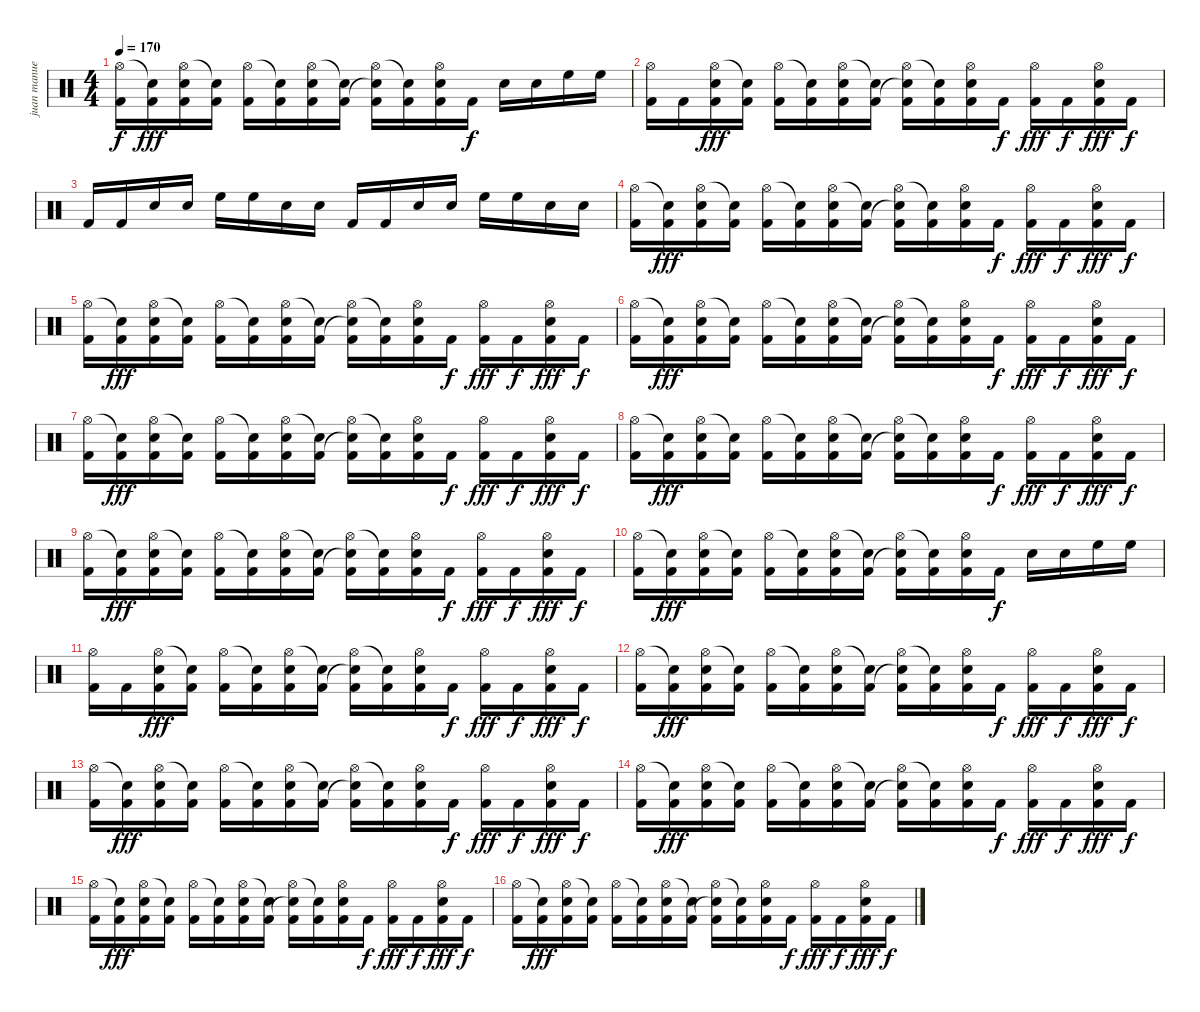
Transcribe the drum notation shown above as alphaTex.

\track ("juan manuel" "juan manue") {instrument percussion}
\staff {score}
\articulation defaults
\ts (4 4)
\tempo 170
\clef neutral
\ks c
("Hi-Hat (open)" "Kick (hit) 2").16{dy f} ("Snare (hit)"{t} "Kick (hit) 2").16{dy fff} ("Hi-Hat (open)" "Snare (hit) 2" "Kick (hit) 2").16 ("Snare (hit)"{t} "Kick (hit) 2").16 ("Hi-Hat (open)" "Kick (hit) 2").16 ("Snare (hit)"{t} "Kick (hit) 2").16 ("Hi-Hat (open)" "Snare (hit) 2" "Kick (hit) 2").16 ("Snare (hit)"{t} "Kick (hit) 2").16 ("Hi-Hat (open)" "Snare (hit)"{t} "Kick (hit) 2").16 ("Snare (hit)"{t} "Kick (hit) 2").16 ("Hi-Hat (open)" "Snare (hit) 2" "Kick (hit) 2").16 "Kick (hit) 2".16{dy f} "Electric Snare (hit)".16 "Electric Snare (hit)".16 "High Floor Tom (hit)".16 "High Floor Tom (hit)".16 |
("Hi-Hat (open)" "Kick (hit) 2").16 "Kick (hit) 2".16 ("Hi-Hat (open)" "Snare (hit) 2" "Kick (hit) 2").16{dy fff} ("Snare (hit)"{t} "Kick (hit) 2").16 ("Hi-Hat (open)" "Kick (hit) 2").16 ("Snare (hit)"{t} "Kick (hit) 2").16 ("Hi-Hat (open)" "Snare (hit) 2" "Kick (hit) 2").16 ("Snare (hit)"{t} "Kick (hit) 2").16 ("Hi-Hat (open)" "Snare (hit)"{t} "Kick (hit) 2").16 ("Snare (hit)"{t} "Kick (hit) 2").16 ("Hi-Hat (open)" "Snare (hit) 2" "Kick (hit) 2").16 "Kick (hit) 2".16{dy f} ("Hi-Hat (open)" "Kick (hit) 2").16{dy fff} "Kick (hit) 2".16{dy f} ("Hi-Hat (open)" "Snare (hit) 2" "Kick (hit) 2").16{dy fff} "Kick (hit) 2".16{dy f} |
"Kick (hit) 2".16 "Kick (hit) 2".16 "Electric Snare (hit)".16 "Electric Snare (hit)".16 "High Floor Tom (hit)".16 "High Floor Tom (hit)".16 "Electric Snare (hit)".16 "Electric Snare (hit)".16 "Kick (hit) 2".16 "Kick (hit) 2".16 "Electric Snare (hit)".16 "Electric Snare (hit)".16 "High Floor Tom (hit)".16 "High Floor Tom (hit)".16 "Electric Snare (hit)".16 "Electric Snare (hit)".16 |
("Hi-Hat (open)" "Kick (hit) 2").16 ("Snare (hit)"{t} "Kick (hit) 2").16{dy fff} ("Hi-Hat (open)" "Snare (hit) 2" "Kick (hit) 2").16 ("Snare (hit)"{t} "Kick (hit) 2").16 ("Hi-Hat (open)" "Kick (hit) 2").16 ("Snare (hit)"{t} "Kick (hit) 2").16 ("Hi-Hat (open)" "Snare (hit) 2" "Kick (hit) 2").16 ("Snare (hit)"{t} "Kick (hit) 2").16 ("Hi-Hat (open)" "Snare (hit)"{t} "Kick (hit) 2").16 ("Snare (hit)"{t} "Kick (hit) 2").16 ("Hi-Hat (open)" "Snare (hit) 2" "Kick (hit) 2").16 "Kick (hit) 2".16{dy f} ("Hi-Hat (open)" "Kick (hit) 2").16{dy fff} "Kick (hit) 2".16{dy f} ("Hi-Hat (open)" "Snare (hit) 2" "Kick (hit) 2").16{dy fff} "Kick (hit) 2".16{dy f} |
("Hi-Hat (open)" "Kick (hit) 2").16 ("Snare (hit)"{t} "Kick (hit) 2").16{dy fff} ("Hi-Hat (open)" "Snare (hit) 2" "Kick (hit) 2").16 ("Snare (hit)"{t} "Kick (hit) 2").16 ("Hi-Hat (open)" "Kick (hit) 2").16 ("Snare (hit)"{t} "Kick (hit) 2").16 ("Hi-Hat (open)" "Snare (hit) 2" "Kick (hit) 2").16 ("Snare (hit)"{t} "Kick (hit) 2").16 ("Hi-Hat (open)" "Snare (hit)"{t} "Kick (hit) 2").16 ("Snare (hit)"{t} "Kick (hit) 2").16 ("Hi-Hat (open)" "Snare (hit) 2" "Kick (hit) 2").16 "Kick (hit) 2".16{dy f} ("Hi-Hat (open)" "Kick (hit) 2").16{dy fff} "Kick (hit) 2".16{dy f} ("Hi-Hat (open)" "Snare (hit) 2" "Kick (hit) 2").16{dy fff} "Kick (hit) 2".16{dy f} |
("Hi-Hat (open)" "Kick (hit) 2").16 ("Snare (hit)"{t} "Kick (hit) 2").16{dy fff} ("Hi-Hat (open)" "Snare (hit) 2" "Kick (hit) 2").16 ("Snare (hit)"{t} "Kick (hit) 2").16 ("Hi-Hat (open)" "Kick (hit) 2").16 ("Snare (hit)"{t} "Kick (hit) 2").16 ("Hi-Hat (open)" "Snare (hit) 2" "Kick (hit) 2").16 ("Snare (hit)"{t} "Kick (hit) 2").16 ("Hi-Hat (open)" "Snare (hit)"{t} "Kick (hit) 2").16 ("Snare (hit)"{t} "Kick (hit) 2").16 ("Hi-Hat (open)" "Snare (hit) 2" "Kick (hit) 2").16 "Kick (hit) 2".16{dy f} ("Hi-Hat (open)" "Kick (hit) 2").16{dy fff} "Kick (hit) 2".16{dy f} ("Hi-Hat (open)" "Snare (hit) 2" "Kick (hit) 2").16{dy fff} "Kick (hit) 2".16{dy f} |
("Hi-Hat (open)" "Kick (hit) 2").16 ("Snare (hit)"{t} "Kick (hit) 2").16{dy fff} ("Hi-Hat (open)" "Snare (hit) 2" "Kick (hit) 2").16 ("Snare (hit)"{t} "Kick (hit) 2").16 ("Hi-Hat (open)" "Kick (hit) 2").16 ("Snare (hit)"{t} "Kick (hit) 2").16 ("Hi-Hat (open)" "Snare (hit) 2" "Kick (hit) 2").16 ("Snare (hit)"{t} "Kick (hit) 2").16 ("Hi-Hat (open)" "Snare (hit)"{t} "Kick (hit) 2").16 ("Snare (hit)"{t} "Kick (hit) 2").16 ("Hi-Hat (open)" "Snare (hit) 2" "Kick (hit) 2").16 "Kick (hit) 2".16{dy f} ("Hi-Hat (open)" "Kick (hit) 2").16{dy fff} "Kick (hit) 2".16{dy f} ("Hi-Hat (open)" "Snare (hit) 2" "Kick (hit) 2").16{dy fff} "Kick (hit) 2".16{dy f} |
("Hi-Hat (open)" "Kick (hit) 2").16 ("Snare (hit)"{t} "Kick (hit) 2").16{dy fff} ("Hi-Hat (open)" "Snare (hit) 2" "Kick (hit) 2").16 ("Snare (hit)"{t} "Kick (hit) 2").16 ("Hi-Hat (open)" "Kick (hit) 2").16 ("Snare (hit)"{t} "Kick (hit) 2").16 ("Hi-Hat (open)" "Snare (hit) 2" "Kick (hit) 2").16 ("Snare (hit)"{t} "Kick (hit) 2").16 ("Hi-Hat (open)" "Snare (hit)"{t} "Kick (hit) 2").16 ("Snare (hit)"{t} "Kick (hit) 2").16 ("Hi-Hat (open)" "Snare (hit) 2" "Kick (hit) 2").16 "Kick (hit) 2".16{dy f} ("Hi-Hat (open)" "Kick (hit) 2").16{dy fff} "Kick (hit) 2".16{dy f} ("Hi-Hat (open)" "Snare (hit) 2" "Kick (hit) 2").16{dy fff} "Kick (hit) 2".16{dy f} |
("Hi-Hat (open)" "Kick (hit) 2").16 ("Snare (hit)"{t} "Kick (hit) 2").16{dy fff} ("Hi-Hat (open)" "Snare (hit) 2" "Kick (hit) 2").16 ("Snare (hit)"{t} "Kick (hit) 2").16 ("Hi-Hat (open)" "Kick (hit) 2").16 ("Snare (hit)"{t} "Kick (hit) 2").16 ("Hi-Hat (open)" "Snare (hit) 2" "Kick (hit) 2").16 ("Snare (hit)"{t} "Kick (hit) 2").16 ("Hi-Hat (open)" "Snare (hit)"{t} "Kick (hit) 2").16 ("Snare (hit)"{t} "Kick (hit) 2").16 ("Hi-Hat (open)" "Snare (hit) 2" "Kick (hit) 2").16 "Kick (hit) 2".16{dy f} ("Hi-Hat (open)" "Kick (hit) 2").16{dy fff} "Kick (hit) 2".16{dy f} ("Hi-Hat (open)" "Snare (hit) 2" "Kick (hit) 2").16{dy fff} "Kick (hit) 2".16{dy f} |
("Hi-Hat (open)" "Kick (hit) 2").16 ("Snare (hit)"{t} "Kick (hit) 2").16{dy fff} ("Hi-Hat (open)" "Snare (hit) 2" "Kick (hit) 2").16 ("Snare (hit)"{t} "Kick (hit) 2").16 ("Hi-Hat (open)" "Kick (hit) 2").16 ("Snare (hit)"{t} "Kick (hit) 2").16 ("Hi-Hat (open)" "Snare (hit) 2" "Kick (hit) 2").16 ("Snare (hit)"{t} "Kick (hit) 2").16 ("Hi-Hat (open)" "Snare (hit)"{t} "Kick (hit) 2").16 ("Snare (hit)"{t} "Kick (hit) 2").16 ("Hi-Hat (open)" "Snare (hit) 2" "Kick (hit) 2").16 "Kick (hit) 2".16{dy f} "Electric Snare (hit)".16 "Electric Snare (hit)".16 "High Floor Tom (hit)".16 "High Floor Tom (hit)".16 |
("Hi-Hat (open)" "Kick (hit) 2").16 "Kick (hit) 2".16 ("Hi-Hat (open)" "Snare (hit) 2" "Kick (hit) 2").16{dy fff} ("Snare (hit)"{t} "Kick (hit) 2").16 ("Hi-Hat (open)" "Kick (hit) 2").16 ("Snare (hit)"{t} "Kick (hit) 2").16 ("Hi-Hat (open)" "Snare (hit) 2" "Kick (hit) 2").16 ("Snare (hit)"{t} "Kick (hit) 2").16 ("Hi-Hat (open)" "Snare (hit)"{t} "Kick (hit) 2").16 ("Snare (hit)"{t} "Kick (hit) 2").16 ("Hi-Hat (open)" "Snare (hit) 2" "Kick (hit) 2").16 "Kick (hit) 2".16{dy f} ("Hi-Hat (open)" "Kick (hit) 2").16{dy fff} "Kick (hit) 2".16{dy f} ("Hi-Hat (open)" "Snare (hit) 2" "Kick (hit) 2").16{dy fff} "Kick (hit) 2".16{dy f} |
("Hi-Hat (open)" "Kick (hit) 2").16 ("Snare (hit)"{t} "Kick (hit) 2").16{dy fff} ("Hi-Hat (open)" "Snare (hit) 2" "Kick (hit) 2").16 ("Snare (hit)"{t} "Kick (hit) 2").16 ("Hi-Hat (open)" "Kick (hit) 2").16 ("Snare (hit)"{t} "Kick (hit) 2").16 ("Hi-Hat (open)" "Snare (hit) 2" "Kick (hit) 2").16 ("Snare (hit)"{t} "Kick (hit) 2").16 ("Hi-Hat (open)" "Snare (hit)"{t} "Kick (hit) 2").16 ("Snare (hit)"{t} "Kick (hit) 2").16 ("Hi-Hat (open)" "Snare (hit) 2" "Kick (hit) 2").16 "Kick (hit) 2".16{dy f} ("Hi-Hat (open)" "Kick (hit) 2").16{dy fff} "Kick (hit) 2".16{dy f} ("Hi-Hat (open)" "Snare (hit) 2" "Kick (hit) 2").16{dy fff} "Kick (hit) 2".16{dy f} |
("Hi-Hat (open)" "Kick (hit) 2").16 ("Snare (hit)"{t} "Kick (hit) 2").16{dy fff} ("Hi-Hat (open)" "Snare (hit) 2" "Kick (hit) 2").16 ("Snare (hit)"{t} "Kick (hit) 2").16 ("Hi-Hat (open)" "Kick (hit) 2").16 ("Snare (hit)"{t} "Kick (hit) 2").16 ("Hi-Hat (open)" "Snare (hit) 2" "Kick (hit) 2").16 ("Snare (hit)"{t} "Kick (hit) 2").16 ("Hi-Hat (open)" "Snare (hit)"{t} "Kick (hit) 2").16 ("Snare (hit)"{t} "Kick (hit) 2").16 ("Hi-Hat (open)" "Snare (hit) 2" "Kick (hit) 2").16 "Kick (hit) 2".16{dy f} ("Hi-Hat (open)" "Kick (hit) 2").16{dy fff} "Kick (hit) 2".16{dy f} ("Hi-Hat (open)" "Snare (hit) 2" "Kick (hit) 2").16{dy fff} "Kick (hit) 2".16{dy f} |
("Hi-Hat (open)" "Kick (hit) 2").16 ("Snare (hit)"{t} "Kick (hit) 2").16{dy fff} ("Hi-Hat (open)" "Snare (hit) 2" "Kick (hit) 2").16 ("Snare (hit)"{t} "Kick (hit) 2").16 ("Hi-Hat (open)" "Kick (hit) 2").16 ("Snare (hit)"{t} "Kick (hit) 2").16 ("Hi-Hat (open)" "Snare (hit) 2" "Kick (hit) 2").16 ("Snare (hit)"{t} "Kick (hit) 2").16 ("Hi-Hat (open)" "Snare (hit)"{t} "Kick (hit) 2").16 ("Snare (hit)"{t} "Kick (hit) 2").16 ("Hi-Hat (open)" "Snare (hit) 2" "Kick (hit) 2").16 "Kick (hit) 2".16{dy f} ("Hi-Hat (open)" "Kick (hit) 2").16{dy fff} "Kick (hit) 2".16{dy f} ("Hi-Hat (open)" "Snare (hit) 2" "Kick (hit) 2").16{dy fff} "Kick (hit) 2".16{dy f} |
("Hi-Hat (open)" "Kick (hit) 2").16 ("Snare (hit)"{t} "Kick (hit) 2").16{dy fff} ("Hi-Hat (open)" "Snare (hit) 2" "Kick (hit) 2").16 ("Snare (hit)"{t} "Kick (hit) 2").16 ("Hi-Hat (open)" "Kick (hit) 2").16 ("Snare (hit)"{t} "Kick (hit) 2").16 ("Hi-Hat (open)" "Snare (hit) 2" "Kick (hit) 2").16 ("Snare (hit)"{t} "Kick (hit) 2").16 ("Hi-Hat (open)" "Snare (hit)"{t} "Kick (hit) 2").16 ("Snare (hit)"{t} "Kick (hit) 2").16 ("Hi-Hat (open)" "Snare (hit) 2" "Kick (hit) 2").16 "Kick (hit) 2".16{dy f} ("Hi-Hat (open)" "Kick (hit) 2").16{dy fff} "Kick (hit) 2".16{dy f} ("Hi-Hat (open)" "Snare (hit) 2" "Kick (hit) 2").16{dy fff} "Kick (hit) 2".16{dy f} |
("Hi-Hat (open)" "Kick (hit) 2").16 ("Snare (hit)"{t} "Kick (hit) 2").16{dy fff} ("Hi-Hat (open)" "Snare (hit) 2" "Kick (hit) 2").16 ("Snare (hit)"{t} "Kick (hit) 2").16 ("Hi-Hat (open)" "Kick (hit) 2").16 ("Snare (hit)"{t} "Kick (hit) 2").16 ("Hi-Hat (open)" "Snare (hit) 2" "Kick (hit) 2").16 ("Snare (hit)"{t} "Kick (hit) 2").16 ("Hi-Hat (open)" "Snare (hit)"{t} "Kick (hit) 2").16 ("Snare (hit)"{t} "Kick (hit) 2").16 ("Hi-Hat (open)" "Snare (hit) 2" "Kick (hit) 2").16 "Kick (hit) 2".16{dy f} ("Hi-Hat (open)" "Kick (hit) 2").16{dy fff} "Kick (hit) 2".16{dy f} ("Hi-Hat (open)" "Snare (hit) 2" "Kick (hit) 2").16{dy fff} "Kick (hit) 2".16{dy f}
